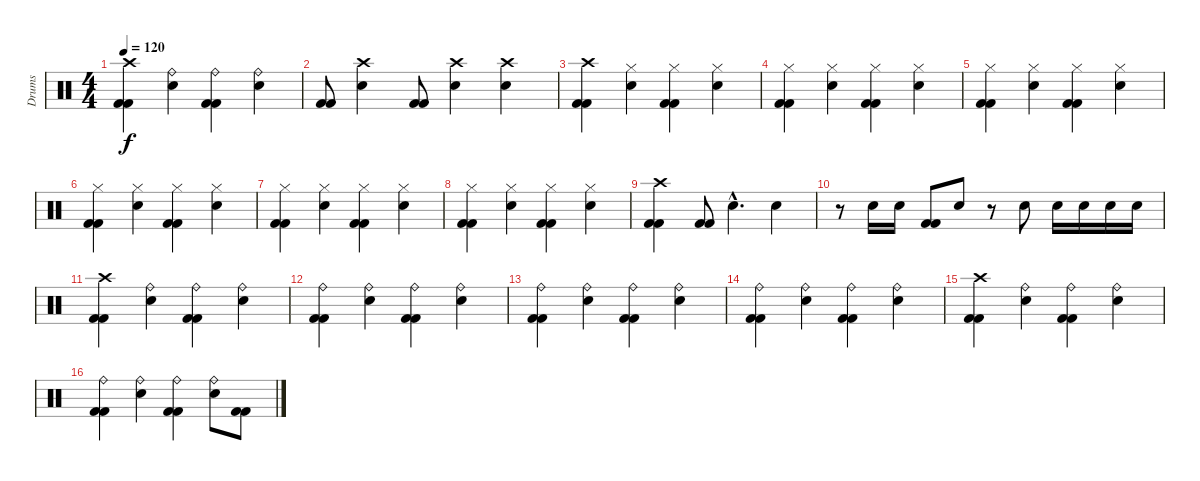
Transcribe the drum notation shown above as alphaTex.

\track ("Drums" "Drums") {instrument percussion}
\staff {score}
\articulation defaults
\ts (4 4)
\tempo 120
\clef neutral
\ks c
("Crash high (hit)" "Kick (hit) 2" "Kick (hit) 2").4{dy f} ("Ride (bell)" "Snare (hit) 2").4 ("Ride (bell)" "Kick (hit) 2" "Kick (hit) 2").4 ("Ride (bell)" "Snare (hit) 2").4 |
("Kick (hit) 2" "Kick (hit) 2").8 ("Crash high (hit)" "Snare (hit) 2").4 ("Kick (hit) 2" "Kick (hit) 2").8 ("Crash high (hit)" "Snare (hit) 2").4 ("Crash high (hit)" "Snare (hit) 2").4 |
("Crash high (hit)" "Kick (hit) 2" "Kick (hit) 2").4 ("Hi-Hat (closed)" "Snare (hit) 2").4 ("Hi-Hat (closed)" "Kick (hit) 2" "Kick (hit) 2").4 ("Hi-Hat (closed)" "Snare (hit) 2").4 |
("Hi-Hat (closed)" "Kick (hit) 2" "Kick (hit) 2").4 ("Hi-Hat (closed)" "Snare (hit) 2").4 ("Hi-Hat (closed)" "Kick (hit) 2" "Kick (hit) 2").4 ("Hi-Hat (closed)" "Snare (hit) 2").4 |
("Hi-Hat (closed)" "Kick (hit) 2" "Kick (hit) 2").4 ("Hi-Hat (closed)" "Snare (hit) 2").4 ("Hi-Hat (closed)" "Kick (hit) 2" "Kick (hit) 2").4 ("Hi-Hat (closed)" "Snare (hit) 2").4 |
("Hi-Hat (closed)" "Kick (hit) 2" "Kick (hit) 2").4 ("Hi-Hat (closed)" "Snare (hit) 2").4 ("Hi-Hat (closed)" "Kick (hit) 2" "Kick (hit) 2").4 ("Hi-Hat (closed)" "Snare (hit) 2").4 |
("Hi-Hat (closed)" "Kick (hit) 2" "Kick (hit) 2").4 ("Hi-Hat (closed)" "Snare (hit) 2").4 ("Hi-Hat (closed)" "Kick (hit) 2" "Kick (hit) 2").4 ("Hi-Hat (closed)" "Snare (hit) 2").4 |
("Hi-Hat (closed)" "Kick (hit) 2" "Kick (hit) 2").4 ("Hi-Hat (closed)" "Snare (hit) 2").4 ("Hi-Hat (closed)" "Kick (hit) 2" "Kick (hit) 2").4 ("Hi-Hat (closed)" "Snare (hit) 2").4 |
("Crash high (hit)" "Kick (hit) 2" "Kick (hit) 2").4 ("Kick (hit) 2" "Kick (hit) 2").8 "Snare (hit) 2"{hac}.4{d} "Snare (hit) 2".4 |
r.8 "Snare (hit) 2".16 "Snare (hit) 2".16 ("Kick (hit) 2" "Kick (hit) 2").8 "Snare (hit) 2".8 r.8 "Snare (hit) 2".8 "Snare (hit) 2".16 "Snare (hit) 2".16 "Snare (hit) 2".16 "Snare (hit) 2".16 |
("Crash high (hit)" "Kick (hit) 2" "Kick (hit) 2").4 ("Ride (bell)" "Snare (hit) 2").4 ("Ride (bell)" "Kick (hit) 2" "Kick (hit) 2").4 ("Ride (bell)" "Snare (hit) 2").4 |
("Ride (bell)" "Kick (hit) 2" "Kick (hit) 2").4 ("Ride (bell)" "Snare (hit) 2").4 ("Ride (bell)" "Kick (hit) 2" "Kick (hit) 2").4 ("Ride (bell)" "Snare (hit) 2").4 |
("Ride (bell)" "Kick (hit) 2" "Kick (hit) 2").4 ("Ride (bell)" "Snare (hit) 2").4 ("Ride (bell)" "Kick (hit) 2" "Kick (hit) 2").4 ("Ride (bell)" "Snare (hit) 2").4 |
("Ride (bell)" "Kick (hit) 2" "Kick (hit) 2").4 ("Ride (bell)" "Snare (hit) 2").4 ("Ride (bell)" "Kick (hit) 2" "Kick (hit) 2").4 ("Ride (bell)" "Snare (hit) 2").4 |
("Crash high (hit)" "Kick (hit) 2" "Kick (hit) 2").4 ("Ride (bell)" "Snare (hit) 2").4 ("Ride (bell)" "Kick (hit) 2" "Kick (hit) 2").4 ("Ride (bell)" "Snare (hit) 2").4 |
("Ride (bell)" "Kick (hit) 2" "Kick (hit) 2").4 ("Ride (bell)" "Snare (hit) 2").4 ("Ride (bell)" "Kick (hit) 2" "Kick (hit) 2").4 ("Ride (bell)" "Snare (hit) 2").8 ("Kick (hit) 2" "Kick (hit) 2").8
